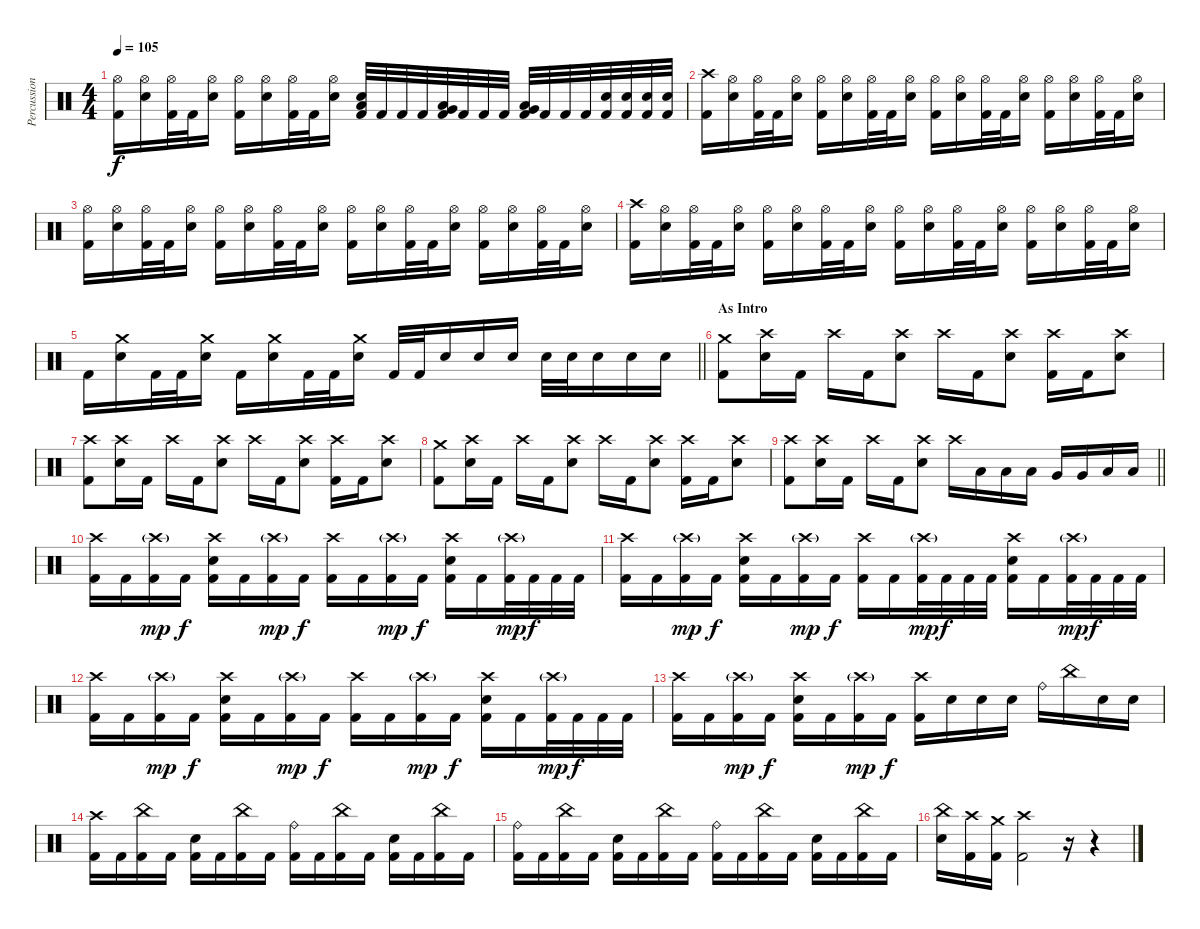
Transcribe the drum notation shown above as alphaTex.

\track ("Percussions" "Percussion") {instrument percussion}
\staff {score}
\articulation defaults
\ts (4 4)
\tempo 105
\clef neutral
\ks c
("Hi-Hat (open)" "Kick (hit) 2").16{dy f} ("Hi-Hat (open)" "Electric Snare (hit)").16 ("Hi-Hat (open)" "Kick (hit) 2").32 "Kick (hit) 2".32 ("Hi-Hat (open)" "Electric Snare (hit)").16 ("Hi-Hat (open)" "Kick (hit) 2").16 ("Hi-Hat (open)" "Electric Snare (hit)").16 ("Hi-Hat (open)" "Kick (hit) 2").32 "Kick (hit) 2".32 ("Hi-Hat (open)" "Electric Snare (hit)").16 ("Electric Snare (hit)" "Low Floor Tom (hit)" "Kick (hit) 2").32 "Kick (hit) 2".32 "Kick (hit) 2".32 "Kick (hit) 2".32 ("Low Tom (hit)" "Very Low Tom (hit)" "Kick (hit) 2").32 "Kick (hit) 2".32 "Kick (hit) 2".32 "Kick (hit) 2".32 ("Very Low Tom (hit)" "Low Floor Tom (hit)" "Kick (hit) 2").32 "Kick (hit) 2".32 "Kick (hit) 2".32 "Kick (hit) 2".32 ("Electric Snare (hit)" "Kick (hit) 2").32 ("Electric Snare (hit)" "Kick (hit) 2").32 ("Electric Snare (hit)" "Kick (hit) 2").32 ("Electric Snare (hit)" "Kick (hit) 2").32 |
("Crash high (hit)" "Kick (hit) 2").16 ("Hi-Hat (open)" "Electric Snare (hit)").16 ("Hi-Hat (open)" "Kick (hit) 2").32 "Kick (hit) 2".32 ("Hi-Hat (open)" "Electric Snare (hit)").16 ("Hi-Hat (open)" "Kick (hit) 2").16 ("Hi-Hat (open)" "Electric Snare (hit)").16 ("Hi-Hat (open)" "Kick (hit) 2").32 "Kick (hit) 2".32 ("Hi-Hat (open)" "Electric Snare (hit)").16 ("Hi-Hat (open)" "Kick (hit) 2").16 ("Hi-Hat (open)" "Electric Snare (hit)").16 ("Hi-Hat (open)" "Kick (hit) 2").32 "Kick (hit) 2".32 ("Hi-Hat (open)" "Electric Snare (hit)").16 ("Hi-Hat (open)" "Kick (hit) 2").16 ("Hi-Hat (open)" "Electric Snare (hit)").16 ("Hi-Hat (open)" "Kick (hit) 2").32 "Kick (hit) 2".32 ("Hi-Hat (open)" "Electric Snare (hit)").16 |
("Hi-Hat (open)" "Kick (hit) 2").16 ("Hi-Hat (open)" "Electric Snare (hit)").16 ("Hi-Hat (open)" "Kick (hit) 2").32 "Kick (hit) 2".32 ("Hi-Hat (open)" "Electric Snare (hit)").16 ("Hi-Hat (open)" "Kick (hit) 2").16 ("Hi-Hat (open)" "Electric Snare (hit)").16 ("Hi-Hat (open)" "Kick (hit) 2").32 "Kick (hit) 2".32 ("Hi-Hat (open)" "Electric Snare (hit)").16 ("Hi-Hat (open)" "Kick (hit) 2").16 ("Hi-Hat (open)" "Electric Snare (hit)").16 ("Hi-Hat (open)" "Kick (hit) 2").32 "Kick (hit) 2".32 ("Hi-Hat (open)" "Electric Snare (hit)").16 ("Hi-Hat (open)" "Kick (hit) 2").16 ("Hi-Hat (open)" "Electric Snare (hit)").16 ("Hi-Hat (open)" "Kick (hit) 2").32 "Kick (hit) 2".32 ("Hi-Hat (open)" "Electric Snare (hit)").16 |
("Crash high (hit)" "Kick (hit) 2").16 ("Hi-Hat (open)" "Electric Snare (hit)").16 ("Hi-Hat (open)" "Kick (hit) 2").32 "Kick (hit) 2".32 ("Hi-Hat (open)" "Electric Snare (hit)").16 ("Hi-Hat (open)" "Kick (hit) 2").16 ("Hi-Hat (open)" "Electric Snare (hit)").16 ("Hi-Hat (open)" "Kick (hit) 2").32 "Kick (hit) 2".32 ("Hi-Hat (open)" "Electric Snare (hit)").16 ("Hi-Hat (open)" "Kick (hit) 2").16 ("Hi-Hat (open)" "Electric Snare (hit)").16 ("Hi-Hat (open)" "Kick (hit) 2").32 "Kick (hit) 2".32 ("Hi-Hat (open)" "Electric Snare (hit)").16 ("Hi-Hat (open)" "Kick (hit) 2").16 ("Hi-Hat (open)" "Electric Snare (hit)").16 ("Hi-Hat (open)" "Kick (hit) 2").32 "Kick (hit) 2".32 ("Hi-Hat (open)" "Electric Snare (hit)").16 |
\barLineRight lightlight "Kick (hit) 2".16
("Crash medium (hit)" "Electric Snare (hit)").16 "Kick (hit) 2".32 "Kick (hit) 2".32 ("Crash medium (hit)" "Electric Snare (hit)").16 "Kick (hit) 2".16 ("Crash medium (hit)" "Electric Snare (hit)").16 "Kick (hit) 2".32 "Kick (hit) 2".32 ("Crash medium (hit)" "Electric Snare (hit)").16 "Kick (hit) 2".32 "Kick (hit) 2".32 "Electric Snare (hit)".16 "Electric Snare (hit)".16 "Electric Snare (hit)".16 "Electric Snare (hit)".32 "Electric Snare (hit)".32 "Electric Snare (hit)".16 "Electric Snare (hit)".16 "Electric Snare (hit)".16 |
\section ("" "As Intro")
("Crash medium (hit)" "Kick (hit) 2").8 ("Crash high (hit)" "Electric Snare (hit)").16 "Kick (hit) 2".16 "Crash high (hit)".16 "Kick (hit) 2".16 ("Crash high (hit)" "Electric Snare (hit)").8 "Crash high (hit)".16 "Kick (hit) 2".16 ("Crash high (hit)" "Electric Snare (hit)").8 ("Crash high (hit)" "Kick (hit) 2").16 "Kick (hit) 2".16 ("Crash high (hit)" "Electric Snare (hit)").8 |
("Crash high (hit)" "Kick (hit) 2").8 ("Crash high (hit)" "Electric Snare (hit)").16 "Kick (hit) 2".16 "Crash high (hit)".16 "Kick (hit) 2".16 ("Crash high (hit)" "Electric Snare (hit)").8 "Crash high (hit)".16 "Kick (hit) 2".16 ("Crash high (hit)" "Electric Snare (hit)").8 ("Crash high (hit)" "Kick (hit) 2").16 "Kick (hit) 2".16 ("Crash high (hit)" "Electric Snare (hit)").8 |
("Crash medium (hit)" "Kick (hit) 2").8 ("Crash high (hit)" "Electric Snare (hit)").16 "Kick (hit) 2".16 "Crash high (hit)".16 "Kick (hit) 2".16 ("Crash high (hit)" "Electric Snare (hit)").8 "Crash high (hit)".16 "Kick (hit) 2".16 ("Crash high (hit)" "Electric Snare (hit)").8 ("Crash high (hit)" "Kick (hit) 2").16 "Kick (hit) 2".16 ("Crash high (hit)" "Electric Snare (hit)").8 |
\barLineRight lightlight
("Crash high (hit)" "Kick (hit) 2").8 ("Crash high (hit)" "Electric Snare (hit)").16 "Kick (hit) 2".16 "Crash high (hit)".16 "Kick (hit) 2".16 ("Crash high (hit)" "Electric Snare (hit)").8 "Crash high (hit)".16 "Low Tom (hit)".16 "Low Tom (hit)".16 "Low Tom (hit)".16 "Very Low Tom (hit)".16 "Very Low Tom (hit)".16 "Low Floor Tom (hit)".16 "Low Floor Tom (hit)".16 |
("Crash high (hit)" "Kick (hit) 2").16 "Kick (hit) 2".16 ("Crash high (hit)"{g} "Kick (hit) 2").16{dy mp} "Kick (hit) 2".16{dy f} ("Crash high (hit)" "Electric Snare (hit)" "Kick (hit) 2").16 "Kick (hit) 2".16 ("Crash high (hit)"{g} "Kick (hit) 2").16{dy mp} "Kick (hit) 2".16{dy f} ("Crash high (hit)" "Kick (hit) 2").16 "Kick (hit) 2".16 ("Crash high (hit)"{g} "Kick (hit) 2").16{dy mp} "Kick (hit) 2".16{dy f} ("Crash high (hit)" "Electric Snare (hit)" "Kick (hit) 2").16 "Kick (hit) 2".16 ("Crash high (hit)"{g} "Kick (hit) 2").32{dy mp} "Kick (hit) 2".32{dy f} "Kick (hit) 2".32 "Kick (hit) 2".32 |
("Crash high (hit)" "Kick (hit) 2").16 "Kick (hit) 2".16 ("Crash high (hit)"{g} "Kick (hit) 2").16{dy mp} "Kick (hit) 2".16{dy f} ("Crash high (hit)" "Electric Snare (hit)" "Kick (hit) 2").16 "Kick (hit) 2".16 ("Crash high (hit)"{g} "Kick (hit) 2").16{dy mp} "Kick (hit) 2".16{dy f} ("Crash high (hit)" "Kick (hit) 2").16 "Kick (hit) 2".16 ("Crash high (hit)"{g} "Kick (hit) 2").32{dy mp} "Kick (hit) 2".32{dy f} "Kick (hit) 2".32 "Kick (hit) 2".32 ("Crash high (hit)" "Electric Snare (hit)" "Kick (hit) 2").16 "Kick (hit) 2".16 ("Crash high (hit)"{g} "Kick (hit) 2").32{dy mp} "Kick (hit) 2".32{dy f} "Kick (hit) 2".32 "Kick (hit) 2".32 |
("Crash high (hit)" "Kick (hit) 2").16 "Kick (hit) 2".16 ("Crash high (hit)"{g} "Kick (hit) 2").16{dy mp} "Kick (hit) 2".16{dy f} ("Crash high (hit)" "Electric Snare (hit)" "Kick (hit) 2").16 "Kick (hit) 2".16 ("Crash high (hit)"{g} "Kick (hit) 2").16{dy mp} "Kick (hit) 2".16{dy f} ("Crash high (hit)" "Kick (hit) 2").16 "Kick (hit) 2".16 ("Crash high (hit)"{g} "Kick (hit) 2").16{dy mp} "Kick (hit) 2".16{dy f} ("Crash high (hit)" "Electric Snare (hit)" "Kick (hit) 2").16 "Kick (hit) 2".16 ("Crash high (hit)"{g} "Kick (hit) 2").32{dy mp} "Kick (hit) 2".32{dy f} "Kick (hit) 2".32 "Kick (hit) 2".32 |
("Crash high (hit)" "Kick (hit) 2").16 "Kick (hit) 2".16 ("Crash high (hit)"{g} "Kick (hit) 2").16{dy mp} "Kick (hit) 2".16{dy f} ("Crash high (hit)" "Electric Snare (hit)" "Kick (hit) 2").16 "Kick (hit) 2".16 ("Crash high (hit)"{g} "Kick (hit) 2").16{dy mp} "Kick (hit) 2".16{dy f} ("Crash high (hit)" "Kick (hit) 2").16 "Electric Snare (hit)".16 "Electric Snare (hit)".16 "Electric Snare (hit)".16 "Ride (bell)".16 "China (hit)".16 "Electric Snare (hit)".16 "Electric Snare (hit)".16 |
("Crash high (hit)" "Kick (hit) 2").16 "Kick (hit) 2".16 ("China (hit)" "Kick (hit) 2").16 "Kick (hit) 2".16 ("Electric Snare (hit)" "Kick (hit) 2").16 "Kick (hit) 2".16 ("China (hit)" "Kick (hit) 2").16 "Kick (hit) 2".16 ("Ride (bell)" "Kick (hit) 2").16 "Kick (hit) 2".16 ("China (hit)" "Kick (hit) 2").16 "Kick (hit) 2".16 ("Electric Snare (hit)" "Kick (hit) 2").16 "Kick (hit) 2".16 ("China (hit)" "Kick (hit) 2").16 "Kick (hit) 2".16 |
("Ride (bell)" "Kick (hit) 2").16 "Kick (hit) 2".16 ("China (hit)" "Kick (hit) 2").16 "Kick (hit) 2".16 ("Electric Snare (hit)" "Kick (hit) 2").16 "Kick (hit) 2".16 ("China (hit)" "Kick (hit) 2").16 "Kick (hit) 2".16 ("Ride (bell)" "Kick (hit) 2").16 "Kick (hit) 2".16 ("China (hit)" "Kick (hit) 2").16 "Kick (hit) 2".16 ("Electric Snare (hit)" "Kick (hit) 2").16 "Kick (hit) 2".16 ("China (hit)" "Kick (hit) 2").16 "Kick (hit) 2".16 |
("China (hit)" "Electric Snare (hit)").16 ("Crash high (hit)" "Kick (hit) 2").16 ("Crash medium (hit)" "Kick (hit) 2").16 ("Crash high (hit)" "Kick (hit) 2").2 r.16 r.4
